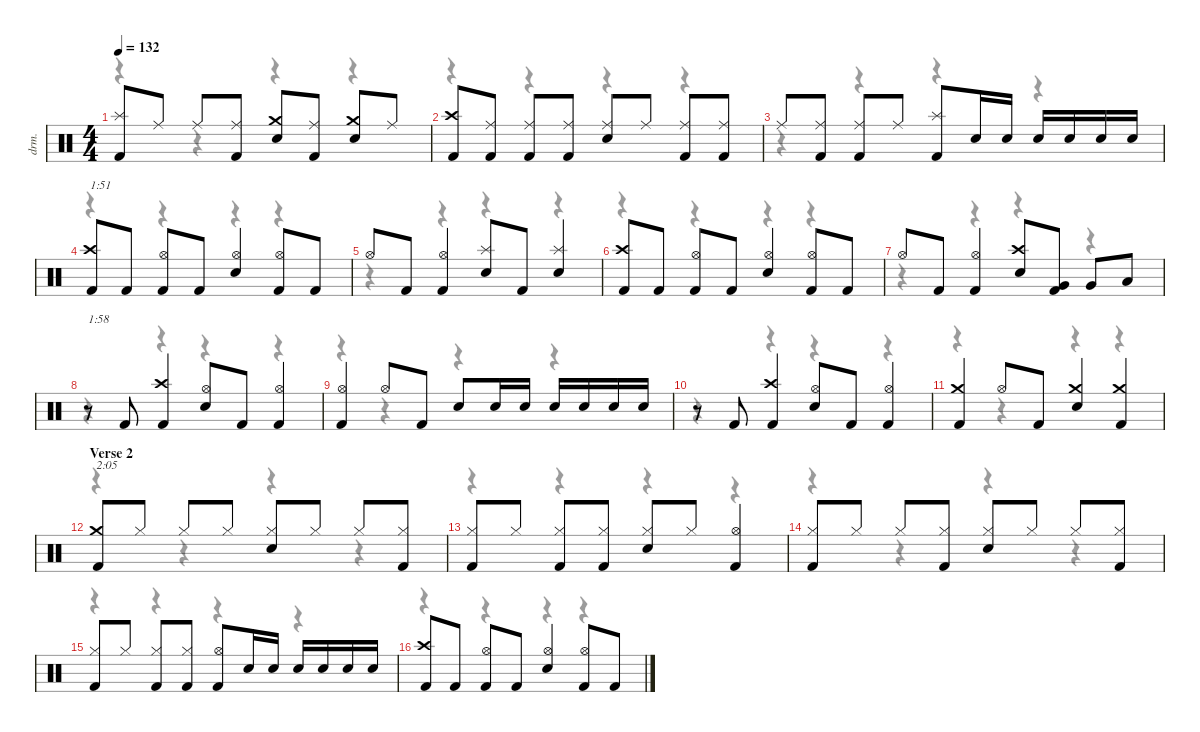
\defaultSystemsLayout 4
\hideDynamics
\bracketExtendMode nobrackets
\otherSystemsTrackNameOrientation horizontal
\track ("Drums" "drm.") {instrument percussion}
\staff {score}
\articulation defaults
\voice
\ts (4 4)
\tempo 132
\clef neutral
\ks c
("Splash (hit)" "Kick (hit) 2").8{dy f} "Ride (middle)".8 "Ride (middle)".8 ("Ride (middle)" "Kick (hit) 2").8 ("Crash medium (hit)" "Snare (hit) 2").8 ("Ride (middle)" "Kick (hit) 2").8 ("Crash medium (hit)" "Snare (hit) 2").8 "Ride (middle)".8 |
("Crash high (hit)" "Kick (hit) 2").8 ("Ride (middle)" "Kick (hit) 2").8 ("Ride (middle)" "Kick (hit) 2").8 ("Ride (middle)" "Kick (hit) 2").8 ("Ride (middle)" "Snare (hit) 2").8 "Ride (middle)".8 ("Ride (middle)" "Kick (hit) 2").8 ("Ride (middle)" "Kick (hit) 2").8 |
"Ride (middle)".8 ("Ride (middle)" "Kick (hit) 2").8 ("Ride (middle)" "Kick (hit) 2").8 "Ride (middle)".8 ("Splash (hit)" "Kick (hit) 2").8 "Snare (hit) 2".16{dy fff} "Snare (hit) 2".16 "Snare (hit) 2".16 "Snare (hit) 2".16 "Snare (hit) 2".16 "Snare (hit) 2".16 |
("Crash high (hit)" "Kick (hit) 2").8{txt "1:51" dy f} "Kick (hit) 2".8{dy fff} ("Hi-Hat (open)" "Kick (hit) 2").8{dy f} "Kick (hit) 2".8{dy fff} ("Hi-Hat (open)" "Snare (hit) 2").4{dy f} ("Hi-Hat (open)" "Kick (hit) 2").8 "Kick (hit) 2".8{dy fff} |
"Hi-Hat (open)".8{dy f} "Kick (hit) 2".8{dy fff} ("Hi-Hat (open)" "Kick (hit) 2").4{dy f} ("Splash (hit)" "Snare (hit) 2").8 "Kick (hit) 2".8{dy fff} ("Splash (hit)" "Snare (hit) 2").4{dy f} |
("Crash high (hit)" "Kick (hit) 2").8 "Kick (hit) 2".8{dy fff} ("Hi-Hat (open)" "Kick (hit) 2").8{dy f} "Kick (hit) 2".8{dy fff} ("Hi-Hat (open)" "Snare (hit) 2").4{dy f} ("Hi-Hat (open)" "Kick (hit) 2").8 "Kick (hit) 2".8{dy fff} |
"Hi-Hat (open)".8{dy f} "Kick (hit) 2".8{dy fff} ("Hi-Hat (open)" "Kick (hit) 2").4{dy f} ("Crash high (hit)" "Snare (hit) 2").8 ("Very Low Tom (hit)" "Kick (hit) 2").8{dy fff} "Very Low Tom (hit)".8 "Low Floor Tom (hit)".8 |
r.8{txt "1:58"} "Kick (hit) 2".8 ("Crash high (hit)" "Kick (hit) 2").4{dy f} ("Hi-Hat (open)" "Snare (hit) 2").8 "Kick (hit) 2".8{dy fff} ("Hi-Hat (open)" "Kick (hit) 2").4{dy f} |
("Hi-Hat (open)" "Kick (hit) 2").4 "Hi-Hat (open)".8 "Kick (hit) 2".8{dy fff} "Snare (hit) 2".8 "Snare (hit) 2".16 "Snare (hit) 2".16 "Snare (hit) 2".16 "Snare (hit) 2".16 "Snare (hit) 2".16 "Snare (hit) 2".16 |
r.8 "Kick (hit) 2".8 ("Crash high (hit)" "Kick (hit) 2").4{dy f} ("Hi-Hat (open)" "Snare (hit) 2").8 "Kick (hit) 2".8{dy fff} ("Hi-Hat (open)" "Kick (hit) 2").4{dy f} |
("Crash medium (hit)" "Kick (hit) 2").4 "Hi-Hat (open)".8 "Kick (hit) 2".8{dy fff} ("Crash medium (hit)" "Snare (hit) 2").4{dy f} ("Crash medium (hit)" "Kick (hit) 2").4 |
\section ("" "Verse 2")
("Crash medium (hit)" "Kick (hit) 2").8{txt "2:05"} "Hi-Hat (closed)".8 "Hi-Hat (closed)".8 "Hi-Hat (closed)".8 ("Hi-Hat (closed)" "Snare (hit) 2").8 "Hi-Hat (closed)".8 "Hi-Hat (closed)".8 ("Hi-Hat (closed)" "Kick (hit) 2").8 |
("Hi-Hat (closed)" "Kick (hit) 2").8 "Hi-Hat (closed)".8 ("Hi-Hat (closed)" "Kick (hit) 2").8 ("Hi-Hat (closed)" "Kick (hit) 2").8 ("Hi-Hat (closed)" "Snare (hit) 2").8 "Hi-Hat (closed)".8 ("Hi-Hat (open)" "Kick (hit) 2").4 |
("Hi-Hat (closed)" "Kick (hit) 2").8 "Hi-Hat (closed)".8 "Hi-Hat (closed)".8 ("Hi-Hat (closed)" "Kick (hit) 2").8 ("Hi-Hat (closed)" "Snare (hit) 2").8 "Hi-Hat (closed)".8 "Hi-Hat (closed)".8 ("Hi-Hat (closed)" "Kick (hit) 2").8 |
("Hi-Hat (closed)" "Kick (hit) 2").8 "Hi-Hat (closed)".8 ("Hi-Hat (closed)" "Kick (hit) 2").8 ("Hi-Hat (closed)" "Kick (hit) 2").8 ("Hi-Hat (open)" "Kick (hit) 2").8 "Snare (hit) 2".16{dy fff} "Snare (hit) 2".16 "Snare (hit) 2".16 "Snare (hit) 2".16 "Snare (hit) 2".16 "Snare (hit) 2".16 |
("Crash high (hit)" "Kick (hit) 2").8{dy f} "Kick (hit) 2".8{dy fff} ("Hi-Hat (open)" "Kick (hit) 2").8{dy f} "Kick (hit) 2".8{dy fff} ("Hi-Hat (open)" "Snare (hit) 2").4{dy f} ("Hi-Hat (open)" "Kick (hit) 2").8 "Kick (hit) 2".8{dy fff}
\voice
\clef neutral
\ottava regular
\simile none
\ks c
r.4{dy mf} r.4 r.4 r.4 |
r.4 r.4 r.4 r.4 |
r.4 r.4 r.4 r.4 |
r.4 r.4 r.4 r.4 |
r.4 r.4 r.4 r.4 |
r.4 r.4 r.4 r.4 |
r.4 r.4 r.4 r.4 |
r.4 r.4 r.4 r.4 |
r.4 r.4 r.4 r.4 |
r.4 r.4 r.4 r.4 |
r.4 r.4 r.4 r.4 |
r.4 r.4 r.4 r.4 |
r.4 r.4 r.4 r.4 |
r.4 r.4 r.4 r.4 |
r.4 r.4 r.4 r.4 |
r.4 r.4 r.4 r.4
